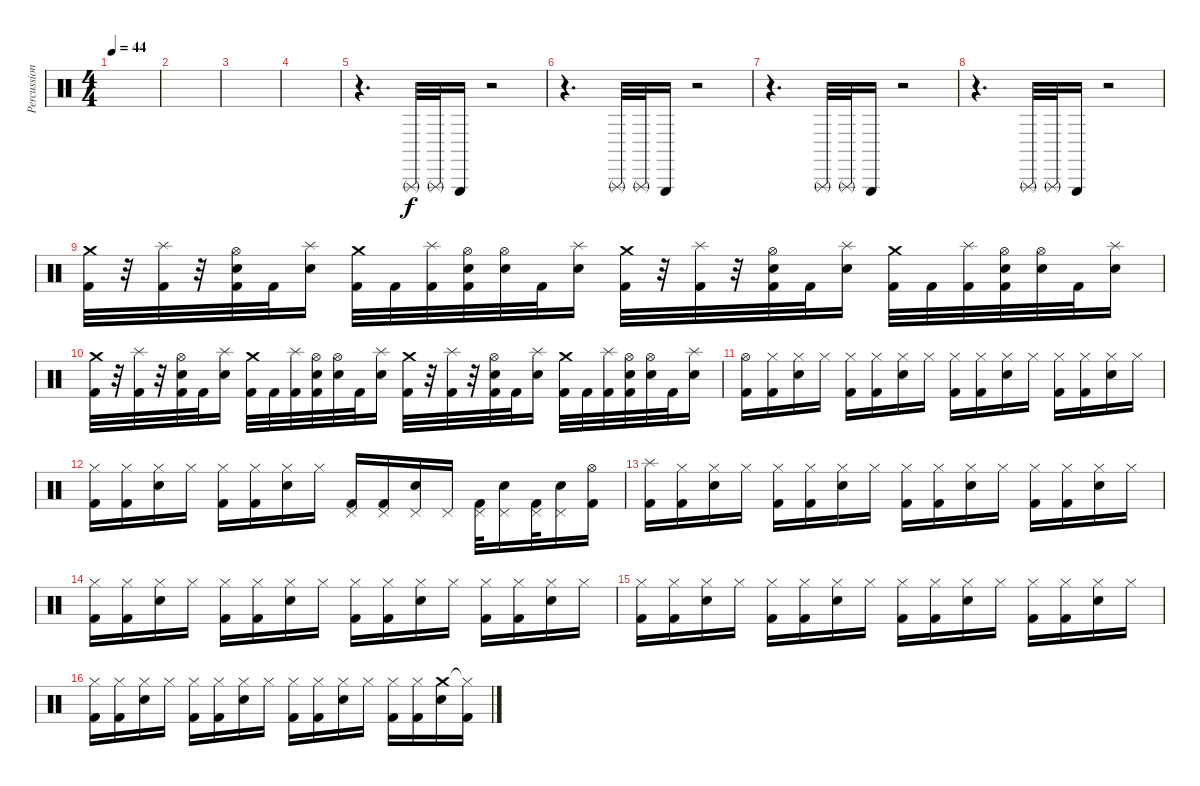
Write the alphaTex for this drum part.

\track ("Percussion" "Percussion") {instrument percussion}
\staff {score}
\articulation defaults
\ts (4 4)
\tempo 44
\clef neutral
\ks c
|
|
|
|
r.4{d} "Triangle (rnute)".32 "Triangle (rnute)".32 "Triangle (hit)".16 r.2 |
r.4{d} "Triangle (rnute)".32 "Triangle (rnute)".32 "Triangle (hit)".16 r.2 |
r.4{d} "Triangle (rnute)".32 "Triangle (rnute)".32 "Triangle (hit)".16 r.2 |
r.4{d} "Triangle (rnute)".32 "Triangle (rnute)".32 "Triangle (hit)".16 r.2 |
("Crash medium (hit)" "Kick (hit) 2").32 r.32 ("Splash (hit)" "Kick (hit) 2").32 r.32 ("Hi-Hat (open)" "Electric Snare (hit)" "Kick (hit) 2").32 "Kick (hit) 2".32 ("Splash (hit)" "Electric Snare (hit)").16 ("Crash medium (hit)" "Kick (hit) 2").32 "Kick (hit) 2".32 ("Splash (hit)" "Kick (hit) 2").32 ("Hi-Hat (open)" "Electric Snare (hit)" "Kick (hit) 2").32 ("Hi-Hat (open)" "Electric Snare (hit)").32 "Kick (hit) 2".32 ("Splash (hit)" "Electric Snare (hit)").16 ("Crash medium (hit)" "Kick (hit) 2").32 r.32 ("Splash (hit)" "Kick (hit) 2").32 r.32 ("Hi-Hat (open)" "Electric Snare (hit)" "Kick (hit) 2").32 "Kick (hit) 2".32 ("Splash (hit)" "Electric Snare (hit)").16 ("Crash medium (hit)" "Kick (hit) 2").32 "Kick (hit) 2".32 ("Splash (hit)" "Kick (hit) 2").32 ("Hi-Hat (open)" "Electric Snare (hit)" "Kick (hit) 2").32 ("Hi-Hat (open)" "Electric Snare (hit)").32 "Kick (hit) 2".32 ("Splash (hit)" "Electric Snare (hit)").16 |
("Crash medium (hit)" "Kick (hit) 2").32 r.32 ("Splash (hit)" "Kick (hit) 2").32 r.32 ("Hi-Hat (open)" "Electric Snare (hit)" "Kick (hit) 2").32 "Kick (hit) 2".32 ("Splash (hit)" "Electric Snare (hit)").16 ("Crash medium (hit)" "Kick (hit) 2").32 "Kick (hit) 2".32 ("Splash (hit)" "Kick (hit) 2").32 ("Hi-Hat (open)" "Electric Snare (hit)" "Kick (hit) 2").32 ("Hi-Hat (open)" "Electric Snare (hit)").32 "Kick (hit) 2".32 ("Splash (hit)" "Electric Snare (hit)").16 ("Crash medium (hit)" "Kick (hit) 2").32 r.32 ("Splash (hit)" "Kick (hit) 2").32 r.32 ("Hi-Hat (open)" "Electric Snare (hit)" "Kick (hit) 2").32 "Kick (hit) 2".32 ("Splash (hit)" "Electric Snare (hit)").16 ("Crash medium (hit)" "Kick (hit) 2").32 "Kick (hit) 2".32 ("Splash (hit)" "Kick (hit) 2").32 ("Hi-Hat (open)" "Electric Snare (hit)" "Kick (hit) 2").32 ("Hi-Hat (open)" "Electric Snare (hit)").32 "Kick (hit) 2".32 ("Splash (hit)" "Electric Snare (hit)").16 |
("Hi-Hat (open)" "Kick (hit) 2").16 ("Hi-Hat (closed)" "Kick (hit) 2").16 ("Hi-Hat (closed)" "Electric Snare (hit)").16 "Hi-Hat (closed)".16 ("Hi-Hat (closed)" "Kick (hit) 2").16 ("Hi-Hat (closed)" "Kick (hit) 2").16 ("Hi-Hat (closed)" "Electric Snare (hit)").16 "Hi-Hat (closed)".16 ("Hi-Hat (closed)" "Kick (hit) 2").16 ("Hi-Hat (closed)" "Kick (hit) 2").16 ("Hi-Hat (closed)" "Electric Snare (hit)").16 "Hi-Hat (closed)".16 ("Hi-Hat (closed)" "Kick (hit) 2").16 ("Hi-Hat (closed)" "Kick (hit) 2").16 ("Hi-Hat (closed)" "Electric Snare (hit)").16 "Hi-Hat (closed)".16 |
("Hi-Hat (closed)" "Kick (hit) 2").16 ("Hi-Hat (closed)" "Kick (hit) 2").16 ("Hi-Hat (closed)" "Electric Snare (hit)").16 "Hi-Hat (closed)".16 ("Hi-Hat (closed)" "Kick (hit) 2").16 ("Hi-Hat (closed)" "Kick (hit) 2").16 ("Hi-Hat (closed)" "Electric Snare (hit)").16 "Hi-Hat (closed)".16 ("Pedal Hi-Hat (hit)" "Kick (hit) 2").16 ("Pedal Hi-Hat (hit)" "Kick (hit) 2").16 ("Pedal Hi-Hat (hit)" "Electric Snare (hit)").16 "Pedal Hi-Hat (hit)".16 ("Pedal Hi-Hat (hit)" "Kick (hit) 2").32 ("Pedal Hi-Hat (hit)" "Electric Snare (hit)").16 ("Pedal Hi-Hat (hit)" "Kick (hit) 2").32 ("Pedal Hi-Hat (hit)" "Electric Snare (hit)").16 ("Hi-Hat (open)" "Kick (hit) 2").16 |
("Splash (hit)" "Kick (hit) 2").16 ("Hi-Hat (closed)" "Kick (hit) 2").16 ("Hi-Hat (closed)" "Electric Snare (hit)").16 "Hi-Hat (closed)".16 ("Hi-Hat (closed)" "Kick (hit) 2").16 ("Hi-Hat (closed)" "Kick (hit) 2").16 ("Hi-Hat (closed)" "Electric Snare (hit)").16 "Hi-Hat (closed)".16 ("Hi-Hat (closed)" "Kick (hit) 2").16 ("Hi-Hat (closed)" "Kick (hit) 2").16 ("Hi-Hat (closed)" "Electric Snare (hit)").16 "Hi-Hat (closed)".16 ("Hi-Hat (closed)" "Kick (hit) 2").16 ("Hi-Hat (closed)" "Kick (hit) 2").16 ("Hi-Hat (closed)" "Electric Snare (hit)").16 "Hi-Hat (closed)".16 |
("Hi-Hat (closed)" "Kick (hit) 2").16 ("Hi-Hat (closed)" "Kick (hit) 2").16 ("Hi-Hat (closed)" "Electric Snare (hit)").16 "Hi-Hat (closed)".16 ("Hi-Hat (closed)" "Kick (hit) 2").16 ("Hi-Hat (closed)" "Kick (hit) 2").16 ("Hi-Hat (closed)" "Electric Snare (hit)").16 "Hi-Hat (closed)".16 ("Hi-Hat (closed)" "Kick (hit) 2").16 ("Hi-Hat (closed)" "Kick (hit) 2").16 ("Hi-Hat (closed)" "Electric Snare (hit)").16 "Hi-Hat (closed)".16 ("Hi-Hat (closed)" "Kick (hit) 2").16 ("Hi-Hat (closed)" "Kick (hit) 2").16 ("Hi-Hat (closed)" "Electric Snare (hit)").16 "Hi-Hat (closed)".16 |
("Hi-Hat (closed)" "Kick (hit) 2").16 ("Hi-Hat (closed)" "Kick (hit) 2").16 ("Hi-Hat (closed)" "Electric Snare (hit)").16 "Hi-Hat (closed)".16 ("Hi-Hat (closed)" "Kick (hit) 2").16 ("Hi-Hat (closed)" "Kick (hit) 2").16 ("Hi-Hat (closed)" "Electric Snare (hit)").16 "Hi-Hat (closed)".16 ("Hi-Hat (closed)" "Kick (hit) 2").16 ("Hi-Hat (closed)" "Kick (hit) 2").16 ("Hi-Hat (closed)" "Electric Snare (hit)").16 "Hi-Hat (closed)".16 ("Hi-Hat (closed)" "Kick (hit) 2").16 ("Hi-Hat (closed)" "Kick (hit) 2").16 ("Hi-Hat (closed)" "Electric Snare (hit)").16 "Hi-Hat (closed)".16 |
("Hi-Hat (closed)" "Kick (hit) 2").16 ("Hi-Hat (closed)" "Kick (hit) 2").16 ("Hi-Hat (closed)" "Electric Snare (hit)").16 "Hi-Hat (closed)".16 ("Hi-Hat (closed)" "Kick (hit) 2").16 ("Hi-Hat (closed)" "Kick (hit) 2").16 ("Hi-Hat (closed)" "Electric Snare (hit)").16 "Hi-Hat (closed)".16 ("Hi-Hat (closed)" "Kick (hit) 2").16 ("Hi-Hat (closed)" "Kick (hit) 2").16 ("Hi-Hat (closed)" "Electric Snare (hit)").16 "Hi-Hat (closed)".16 ("Hi-Hat (closed)" "Kick (hit) 2").16 ("Hi-Hat (closed)" "Kick (hit) 2").16 ("Crash medium (hit)" "Electric Snare (hit)").16 ("Hi-Hat (closed)"{t} "Kick (hit) 2").16
